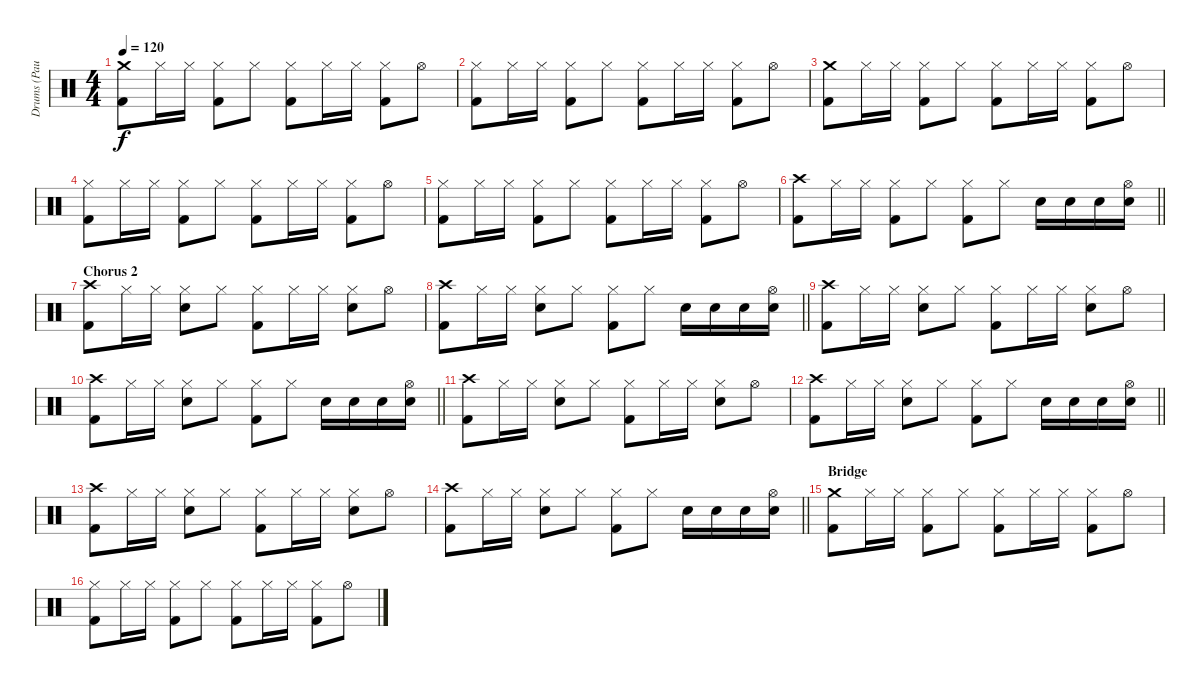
\track ("Drums (Paul Thompson)" "Drums (Pau") {instrument percussion}
\staff {score}
\articulation defaults
\ts (4 4)
\tempo 120
\clef neutral
\ks c
("Crash medium (hit)" "Kick (hit) 2").8{dy f} "Hi-Hat (closed)".16 "Hi-Hat (closed)".16 ("Hi-Hat (closed)" "Kick (hit) 2").8 "Hi-Hat (closed)".8 ("Hi-Hat (closed)" "Kick (hit) 2").8 "Hi-Hat (closed)".16 "Hi-Hat (closed)".16 ("Hi-Hat (closed)" "Kick (hit) 2").8 "Hi-Hat (open)".8 |
("Hi-Hat (closed)" "Kick (hit) 2").8 "Hi-Hat (closed)".16 "Hi-Hat (closed)".16 ("Hi-Hat (closed)" "Kick (hit) 2").8 "Hi-Hat (closed)".8 ("Hi-Hat (closed)" "Kick (hit) 2").8 "Hi-Hat (closed)".16 "Hi-Hat (closed)".16 ("Hi-Hat (closed)" "Kick (hit) 2").8 "Hi-Hat (open)".8 |
("Crash medium (hit)" "Kick (hit) 2").8 "Hi-Hat (closed)".16 "Hi-Hat (closed)".16 ("Hi-Hat (closed)" "Kick (hit) 2").8 "Hi-Hat (closed)".8 ("Hi-Hat (closed)" "Kick (hit) 2").8 "Hi-Hat (closed)".16 "Hi-Hat (closed)".16 ("Hi-Hat (closed)" "Kick (hit) 2").8 "Hi-Hat (open)".8 |
("Hi-Hat (closed)" "Kick (hit) 2").8 "Hi-Hat (closed)".16 "Hi-Hat (closed)".16 ("Hi-Hat (closed)" "Kick (hit) 2").8 "Hi-Hat (closed)".8 ("Hi-Hat (closed)" "Kick (hit) 2").8 "Hi-Hat (closed)".16 "Hi-Hat (closed)".16 ("Hi-Hat (closed)" "Kick (hit) 2").8 "Hi-Hat (open)".8 |
("Hi-Hat (closed)" "Kick (hit) 2").8 "Hi-Hat (closed)".16 "Hi-Hat (closed)".16 ("Hi-Hat (closed)" "Kick (hit) 2").8 "Hi-Hat (closed)".8 ("Hi-Hat (closed)" "Kick (hit) 2").8 "Hi-Hat (closed)".16 "Hi-Hat (closed)".16 ("Hi-Hat (closed)" "Kick (hit) 2").8 "Hi-Hat (open)".8 |
\barLineRight lightlight
("Crash high (hit)" "Kick (hit) 2").8 "Hi-Hat (closed)".16 "Hi-Hat (closed)".16 ("Hi-Hat (closed)" "Kick (hit) 2").8 "Hi-Hat (closed)".8 ("Hi-Hat (closed)" "Kick (hit) 2").8 "Hi-Hat (closed)".8 "Snare (hit) 2".16 "Snare (hit) 2".16 "Snare (hit) 2".16 ("Hi-Hat (open)" "Snare (hit) 2").16 |
\section ("" "Chorus 2")
("Crash high (hit)" "Kick (hit) 2").8 "Hi-Hat (closed)".16 "Hi-Hat (closed)".16 ("Hi-Hat (closed)" "Snare (hit) 2").8 "Hi-Hat (closed)".8 ("Hi-Hat (closed)" "Kick (hit) 2").8 "Hi-Hat (closed)".16 "Hi-Hat (closed)".16 ("Hi-Hat (closed)" "Snare (hit) 2").8 "Hi-Hat (open)".8 |
\barLineRight lightlight
("Crash high (hit)" "Kick (hit) 2").8 "Hi-Hat (closed)".16 "Hi-Hat (closed)".16 ("Hi-Hat (closed)" "Snare (hit) 2").8 "Hi-Hat (closed)".8 ("Hi-Hat (closed)" "Kick (hit) 2").8 "Hi-Hat (closed)".8 "Snare (hit) 2".16 "Snare (hit) 2".16 "Snare (hit) 2".16 ("Hi-Hat (open)" "Snare (hit) 2").16 |
("Crash high (hit)" "Kick (hit) 2").8 "Hi-Hat (closed)".16 "Hi-Hat (closed)".16 ("Hi-Hat (closed)" "Snare (hit) 2").8 "Hi-Hat (closed)".8 ("Hi-Hat (closed)" "Kick (hit) 2").8 "Hi-Hat (closed)".16 "Hi-Hat (closed)".16 ("Hi-Hat (closed)" "Snare (hit) 2").8 "Hi-Hat (open)".8 |
\barLineRight lightlight
("Crash high (hit)" "Kick (hit) 2").8 "Hi-Hat (closed)".16 "Hi-Hat (closed)".16 ("Hi-Hat (closed)" "Snare (hit) 2").8 "Hi-Hat (closed)".8 ("Hi-Hat (closed)" "Kick (hit) 2").8 "Hi-Hat (closed)".8 "Snare (hit) 2".16 "Snare (hit) 2".16 "Snare (hit) 2".16 ("Hi-Hat (open)" "Snare (hit) 2").16 |
("Crash high (hit)" "Kick (hit) 2").8 "Hi-Hat (closed)".16 "Hi-Hat (closed)".16 ("Hi-Hat (closed)" "Snare (hit) 2").8 "Hi-Hat (closed)".8 ("Hi-Hat (closed)" "Kick (hit) 2").8 "Hi-Hat (closed)".16 "Hi-Hat (closed)".16 ("Hi-Hat (closed)" "Snare (hit) 2").8 "Hi-Hat (open)".8 |
\barLineRight lightlight
("Crash high (hit)" "Kick (hit) 2").8 "Hi-Hat (closed)".16 "Hi-Hat (closed)".16 ("Hi-Hat (closed)" "Snare (hit) 2").8 "Hi-Hat (closed)".8 ("Hi-Hat (closed)" "Kick (hit) 2").8 "Hi-Hat (closed)".8 "Snare (hit) 2".16 "Snare (hit) 2".16 "Snare (hit) 2".16 ("Hi-Hat (open)" "Snare (hit) 2").16 |
("Crash high (hit)" "Kick (hit) 2").8 "Hi-Hat (closed)".16 "Hi-Hat (closed)".16 ("Hi-Hat (closed)" "Snare (hit) 2").8 "Hi-Hat (closed)".8 ("Hi-Hat (closed)" "Kick (hit) 2").8 "Hi-Hat (closed)".16 "Hi-Hat (closed)".16 ("Hi-Hat (closed)" "Snare (hit) 2").8 "Hi-Hat (open)".8 |
\barLineRight lightlight
("Crash high (hit)" "Kick (hit) 2").8 "Hi-Hat (closed)".16 "Hi-Hat (closed)".16 ("Hi-Hat (closed)" "Snare (hit) 2").8 "Hi-Hat (closed)".8 ("Hi-Hat (closed)" "Kick (hit) 2").8 "Hi-Hat (closed)".8 "Snare (hit) 2".16 "Snare (hit) 2".16 "Snare (hit) 2".16 ("Hi-Hat (open)" "Snare (hit) 2").16 |
\section ("" "Bridge")
("Crash medium (hit)" "Kick (hit) 2").8 "Hi-Hat (closed)".16 "Hi-Hat (closed)".16 ("Hi-Hat (closed)" "Kick (hit) 2").8 "Hi-Hat (closed)".8 ("Hi-Hat (closed)" "Kick (hit) 2").8 "Hi-Hat (closed)".16 "Hi-Hat (closed)".16 ("Hi-Hat (closed)" "Kick (hit) 2").8 "Hi-Hat (open)".8 |
("Hi-Hat (closed)" "Kick (hit) 2").8 "Hi-Hat (closed)".16 "Hi-Hat (closed)".16 ("Hi-Hat (closed)" "Kick (hit) 2").8 "Hi-Hat (closed)".8 ("Hi-Hat (closed)" "Kick (hit) 2").8 "Hi-Hat (closed)".16 "Hi-Hat (closed)".16 ("Hi-Hat (closed)" "Kick (hit) 2").8 "Hi-Hat (open)".8
